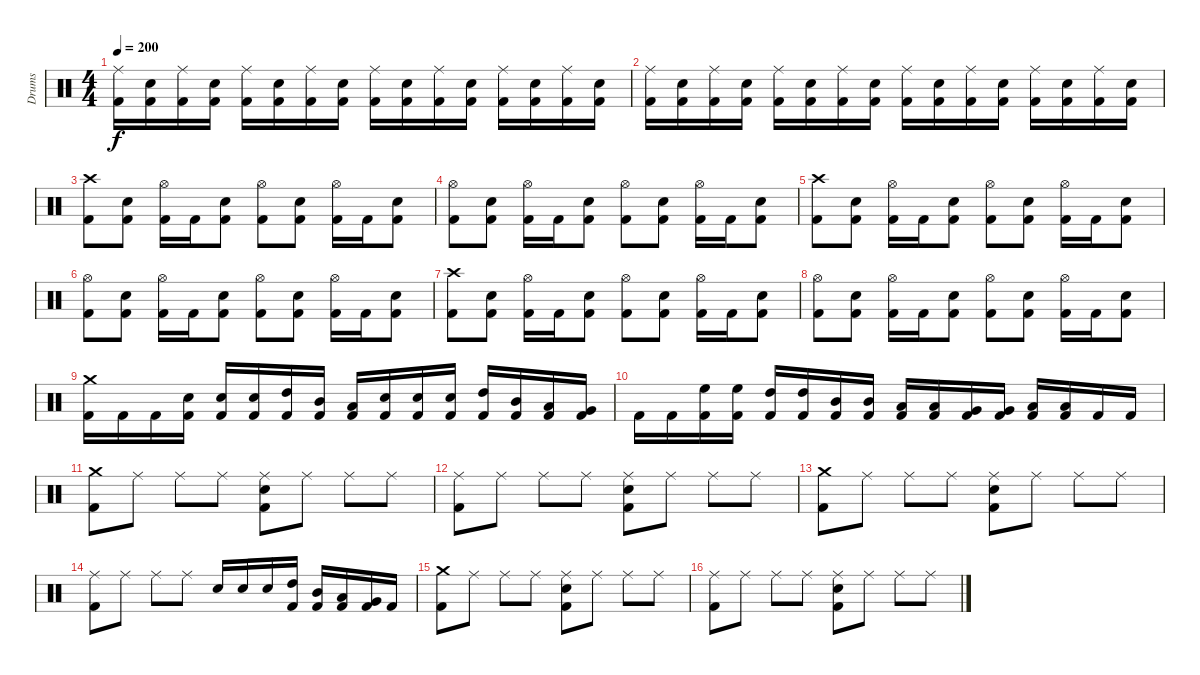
\track ("Drums" "Drums") {instrument percussion}
\staff {score}
\articulation defaults
\ts (4 4)
\tempo 200
\clef neutral
\ks c
("Ride (middle)" "Kick (hit) 2").16{dy f} ("Electric Snare (hit)" "Kick (hit) 2").16 ("Ride (middle)" "Kick (hit) 2").16 ("Electric Snare (hit)" "Kick (hit) 2").16 ("Ride (middle)" "Kick (hit) 2").16 ("Electric Snare (hit)" "Kick (hit) 2").16 ("Ride (middle)" "Kick (hit) 2").16 ("Electric Snare (hit)" "Kick (hit) 2").16 ("Ride (middle)" "Kick (hit) 2").16 ("Electric Snare (hit)" "Kick (hit) 2").16 ("Ride (middle)" "Kick (hit) 2").16 ("Electric Snare (hit)" "Kick (hit) 2").16 ("Ride (middle)" "Kick (hit) 2").16 ("Electric Snare (hit)" "Kick (hit) 2").16 ("Ride (middle)" "Kick (hit) 2").16 ("Electric Snare (hit)" "Kick (hit) 2").16 |
("Ride (middle)" "Kick (hit) 2").16 ("Electric Snare (hit)" "Kick (hit) 2").16 ("Ride (middle)" "Kick (hit) 2").16 ("Electric Snare (hit)" "Kick (hit) 2").16 ("Ride (middle)" "Kick (hit) 2").16 ("Electric Snare (hit)" "Kick (hit) 2").16 ("Ride (middle)" "Kick (hit) 2").16 ("Electric Snare (hit)" "Kick (hit) 2").16 ("Ride (middle)" "Kick (hit) 2").16 ("Electric Snare (hit)" "Kick (hit) 2").16 ("Ride (middle)" "Kick (hit) 2").16 ("Electric Snare (hit)" "Kick (hit) 2").16 ("Ride (middle)" "Kick (hit) 2").16 ("Electric Snare (hit)" "Kick (hit) 2").16 ("Ride (middle)" "Kick (hit) 2").16 ("Electric Snare (hit)" "Kick (hit) 2").16 |
("Crash high (hit)" "Kick (hit) 2").8 ("Electric Snare (hit)" "Kick (hit) 2").8 ("Hi-Hat (open)" "Kick (hit) 2").16 "Kick (hit) 2".16 ("Electric Snare (hit)" "Kick (hit) 2").8 ("Hi-Hat (open)" "Kick (hit) 2").8 ("Electric Snare (hit)" "Kick (hit) 2").8 ("Hi-Hat (open)" "Kick (hit) 2").16 "Kick (hit) 2".16 ("Electric Snare (hit)" "Kick (hit) 2").8 |
("Hi-Hat (open)" "Kick (hit) 2").8 ("Electric Snare (hit)" "Kick (hit) 2").8 ("Hi-Hat (open)" "Kick (hit) 2").16 "Kick (hit) 2".16 ("Electric Snare (hit)" "Kick (hit) 2").8 ("Hi-Hat (open)" "Kick (hit) 2").8 ("Electric Snare (hit)" "Kick (hit) 2").8 ("Hi-Hat (open)" "Kick (hit) 2").16 "Kick (hit) 2".16 ("Electric Snare (hit)" "Kick (hit) 2").8 |
("Crash high (hit)" "Kick (hit) 2").8 ("Electric Snare (hit)" "Kick (hit) 2").8 ("Hi-Hat (open)" "Kick (hit) 2").16 "Kick (hit) 2".16 ("Electric Snare (hit)" "Kick (hit) 2").8 ("Hi-Hat (open)" "Kick (hit) 2").8 ("Electric Snare (hit)" "Kick (hit) 2").8 ("Hi-Hat (open)" "Kick (hit) 2").16 "Kick (hit) 2".16 ("Electric Snare (hit)" "Kick (hit) 2").8 |
("Hi-Hat (open)" "Kick (hit) 2").8 ("Electric Snare (hit)" "Kick (hit) 2").8 ("Hi-Hat (open)" "Kick (hit) 2").16 "Kick (hit) 2".16 ("Electric Snare (hit)" "Kick (hit) 2").8 ("Hi-Hat (open)" "Kick (hit) 2").8 ("Electric Snare (hit)" "Kick (hit) 2").8 ("Hi-Hat (open)" "Kick (hit) 2").16 "Kick (hit) 2".16 ("Electric Snare (hit)" "Kick (hit) 2").8 |
("Crash high (hit)" "Kick (hit) 2").8 ("Electric Snare (hit)" "Kick (hit) 2").8 ("Hi-Hat (open)" "Kick (hit) 2").16 "Kick (hit) 2".16 ("Electric Snare (hit)" "Kick (hit) 2").8 ("Hi-Hat (open)" "Kick (hit) 2").8 ("Electric Snare (hit)" "Kick (hit) 2").8 ("Hi-Hat (open)" "Kick (hit) 2").16 "Kick (hit) 2".16 ("Electric Snare (hit)" "Kick (hit) 2").8 |
("Hi-Hat (open)" "Kick (hit) 2").8 ("Electric Snare (hit)" "Kick (hit) 2").8 ("Hi-Hat (open)" "Kick (hit) 2").16 "Kick (hit) 2".16 ("Electric Snare (hit)" "Kick (hit) 2").8 ("Hi-Hat (open)" "Kick (hit) 2").8 ("Electric Snare (hit)" "Kick (hit) 2").8 ("Hi-Hat (open)" "Kick (hit) 2").16 "Kick (hit) 2".16 ("Electric Snare (hit)" "Kick (hit) 2").8 |
("Crash medium (hit)" "Kick (hit) 2").16 "Kick (hit) 2".16 "Kick (hit) 2".16 ("Electric Snare (hit)" "Kick (hit) 2").16 ("Electric Snare (hit)" "Kick (hit) 2").16 ("Electric Snare (hit)" "Kick (hit) 2").16 ("High Tom (hit)" "Kick (hit) 2").16 ("Mid Tom (hit)" "Kick (hit) 2").16 ("Low Tom (hit)" "Kick (hit) 2").16 ("Electric Snare (hit)" "Kick (hit) 2").16 ("Electric Snare (hit)" "Kick (hit) 2").16 ("Electric Snare (hit)" "Kick (hit) 2").16 ("High Tom (hit)" "Kick (hit) 2").16 ("Mid Tom (hit)" "Kick (hit) 2").16 ("Low Tom (hit)" "Kick (hit) 2").16 ("Very Low Tom (hit)" "Kick (hit) 2").16 |
"Kick (hit) 2".16 "Kick (hit) 2".16 ("High Floor Tom (hit)" "Kick (hit) 2").16 ("High Floor Tom (hit)" "Kick (hit) 2").16 ("High Tom (hit)" "Kick (hit) 2").16 ("High Tom (hit)" "Kick (hit) 2").16 ("Mid Tom (hit)" "Kick (hit) 2").16 ("Mid Tom (hit)" "Kick (hit) 2").16 ("Low Tom (hit)" "Kick (hit) 2").16 ("Low Tom (hit)" "Kick (hit) 2").16 ("Very Low Tom (hit)" "Kick (hit) 2").16 ("Very Low Tom (hit)" "Kick (hit) 2").16 ("Low Floor Tom (hit)" "Kick (hit) 2").16 ("Low Floor Tom (hit)" "Kick (hit) 2").16 "Kick (hit) 2".16 "Kick (hit) 2".16 |
("Crash medium (hit)" "Kick (hit) 2").8 "Ride (middle)".8 "Ride (middle)".8 "Ride (middle)".8 ("Ride (middle)" "Electric Snare (hit)" "Kick (hit) 2").8 "Ride (middle)".8 "Ride (middle)".8 "Ride (middle)".8 |
("Ride (middle)" "Kick (hit) 2").8 "Ride (middle)".8 "Ride (middle)".8 "Ride (middle)".8 ("Ride (middle)" "Electric Snare (hit)" "Kick (hit) 2").8 "Ride (middle)".8 "Ride (middle)".8 "Ride (middle)".8 |
("Crash medium (hit)" "Kick (hit) 2").8 "Ride (middle)".8 "Ride (middle)".8 "Ride (middle)".8 ("Ride (middle)" "Electric Snare (hit)" "Kick (hit) 2").8 "Ride (middle)".8 "Ride (middle)".8 "Ride (middle)".8 |
("Ride (middle)" "Kick (hit) 2").8 "Ride (middle)".8 "Ride (middle)".8 "Ride (middle)".8 "Electric Snare (hit)".16 "Electric Snare (hit)".16 "Electric Snare (hit)".16 ("High Tom (hit)" "Kick (hit) 2").16 ("Mid Tom (hit)" "Kick (hit) 2").16 ("Low Tom (hit)" "Kick (hit) 2").16 ("Very Low Tom (hit)" "Kick (hit) 2").16 "Kick (hit) 2".16 |
("Crash medium (hit)" "Kick (hit) 2").8 "Ride (middle)".8 "Ride (middle)".8 "Ride (middle)".8 ("Ride (middle)" "Electric Snare (hit)" "Kick (hit) 2").8 "Ride (middle)".8 "Ride (middle)".8 "Ride (middle)".8 |
("Ride (middle)" "Kick (hit) 2").8 "Ride (middle)".8 "Ride (middle)".8 "Ride (middle)".8 ("Ride (middle)" "Electric Snare (hit)" "Kick (hit) 2").8 "Ride (middle)".8 "Ride (middle)".8 "Ride (middle)".8
